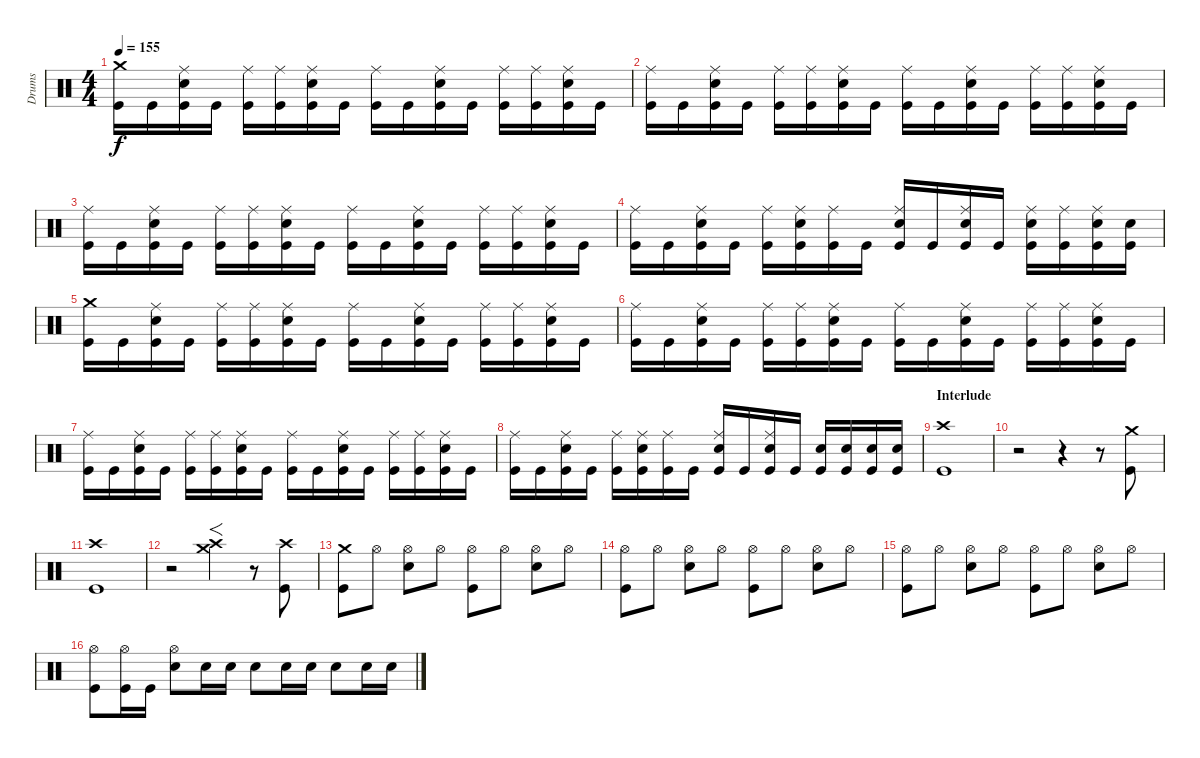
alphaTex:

\track ("Drums" "Drums") {instrument percussion}
\staff {score}
\articulation defaults
\ts (4 4)
\tempo 155
\clef neutral
\ks c
("Crash medium (hit)" "Kick (hit)").16{dy f} "Kick (hit)".16 ("Ride (middle)" "Snare (hit) 2" "Kick (hit)").16 "Kick (hit)".16 ("Ride (middle)" "Kick (hit)").16 ("Ride (middle)" "Kick (hit)").16 ("Ride (middle)" "Snare (hit) 2" "Kick (hit)").16 "Kick (hit)".16 ("Ride (middle)" "Kick (hit)").16 "Kick (hit)".16 ("Ride (middle)" "Snare (hit) 2" "Kick (hit)").16 "Kick (hit)".16 ("Ride (middle)" "Kick (hit)").16 ("Ride (middle)" "Kick (hit)").16 ("Ride (middle)" "Snare (hit) 2" "Kick (hit)").16 "Kick (hit)".16 |
("Ride (middle)" "Kick (hit)").16 "Kick (hit)".16 ("Ride (middle)" "Snare (hit) 2" "Kick (hit)").16 "Kick (hit)".16 ("Ride (middle)" "Kick (hit)").16 ("Ride (middle)" "Kick (hit)").16 ("Ride (middle)" "Snare (hit) 2" "Kick (hit)").16 "Kick (hit)".16 ("Ride (middle)" "Kick (hit)").16 "Kick (hit)".16 ("Ride (middle)" "Snare (hit) 2" "Kick (hit)").16 "Kick (hit)".16 ("Ride (middle)" "Kick (hit)").16 ("Ride (middle)" "Kick (hit)").16 ("Ride (middle)" "Snare (hit) 2" "Kick (hit)").16 "Kick (hit)".16 |
("Ride (middle)" "Kick (hit)").16 "Kick (hit)".16 ("Ride (middle)" "Snare (hit) 2" "Kick (hit)").16 "Kick (hit)".16 ("Ride (middle)" "Kick (hit)").16 ("Ride (middle)" "Kick (hit)").16 ("Ride (middle)" "Snare (hit) 2" "Kick (hit)").16 "Kick (hit)".16 ("Ride (middle)" "Kick (hit)").16 "Kick (hit)".16 ("Ride (middle)" "Snare (hit) 2" "Kick (hit)").16 "Kick (hit)".16 ("Ride (middle)" "Kick (hit)").16 ("Ride (middle)" "Kick (hit)").16 ("Ride (middle)" "Snare (hit) 2" "Kick (hit)").16 "Kick (hit)".16 |
("Ride (middle)" "Kick (hit)").16 "Kick (hit)".16 ("Ride (middle)" "Snare (hit) 2" "Kick (hit)").16 "Kick (hit)".16 ("Ride (middle)" "Kick (hit)").16 ("Ride (middle)" "Snare (hit) 2" "Kick (hit)").16 ("Ride (middle)" "Kick (hit)").16 "Kick (hit)".16 ("Ride (middle)" "Snare (hit) 2" "Kick (hit)").16 "Kick (hit)".16 ("Ride (middle)" "Snare (hit) 2" "Kick (hit)").16 "Kick (hit)".16 ("Ride (middle)" "Snare (hit) 2" "Kick (hit)").16 ("Ride (middle)" "Kick (hit)").16 ("Ride (middle)" "Snare (hit) 2" "Kick (hit)").16 ("Snare (hit) 2" "Kick (hit)").16 |
("Crash medium (hit)" "Kick (hit)").16 "Kick (hit)".16 ("Ride (middle)" "Snare (hit) 2" "Kick (hit)").16 "Kick (hit)".16 ("Ride (middle)" "Kick (hit)").16 ("Ride (middle)" "Kick (hit)").16 ("Ride (middle)" "Snare (hit) 2" "Kick (hit)").16 "Kick (hit)".16 ("Ride (middle)" "Kick (hit)").16 "Kick (hit)".16 ("Ride (middle)" "Snare (hit) 2" "Kick (hit)").16 "Kick (hit)".16 ("Ride (middle)" "Kick (hit)").16 ("Ride (middle)" "Kick (hit)").16 ("Ride (middle)" "Snare (hit) 2" "Kick (hit)").16 "Kick (hit)".16 |
("Ride (middle)" "Kick (hit)").16 "Kick (hit)".16 ("Ride (middle)" "Snare (hit) 2" "Kick (hit)").16 "Kick (hit)".16 ("Ride (middle)" "Kick (hit)").16 ("Ride (middle)" "Kick (hit)").16 ("Ride (middle)" "Snare (hit) 2" "Kick (hit)").16 "Kick (hit)".16 ("Ride (middle)" "Kick (hit)").16 "Kick (hit)".16 ("Ride (middle)" "Snare (hit) 2" "Kick (hit)").16 "Kick (hit)".16 ("Ride (middle)" "Kick (hit)").16 ("Ride (middle)" "Kick (hit)").16 ("Ride (middle)" "Snare (hit) 2" "Kick (hit)").16 "Kick (hit)".16 |
("Ride (middle)" "Kick (hit)").16 "Kick (hit)".16 ("Ride (middle)" "Snare (hit) 2" "Kick (hit)").16 "Kick (hit)".16 ("Ride (middle)" "Kick (hit)").16 ("Ride (middle)" "Kick (hit)").16 ("Ride (middle)" "Snare (hit) 2" "Kick (hit)").16 "Kick (hit)".16 ("Ride (middle)" "Kick (hit)").16 "Kick (hit)".16 ("Ride (middle)" "Snare (hit) 2" "Kick (hit)").16 "Kick (hit)".16 ("Ride (middle)" "Kick (hit)").16 ("Ride (middle)" "Kick (hit)").16 ("Ride (middle)" "Snare (hit) 2" "Kick (hit)").16 "Kick (hit)".16 |
("Ride (middle)" "Kick (hit)").16 "Kick (hit)".16 ("Ride (middle)" "Snare (hit) 2" "Kick (hit)").16 "Kick (hit)".16 ("Ride (middle)" "Kick (hit)").16 ("Ride (middle)" "Snare (hit) 2" "Kick (hit)").16 ("Ride (middle)" "Kick (hit)").16 "Kick (hit)".16 ("Ride (middle)" "Snare (hit) 2" "Kick (hit)").16 "Kick (hit)".16 ("Ride (middle)" "Snare (hit) 2" "Kick (hit)").16 "Kick (hit)".16 ("Snare (hit) 2" "Kick (hit)").16 ("Snare (hit) 2" "Kick (hit)").16 ("Snare (hit) 2" "Kick (hit)").16 ("Snare (hit) 2" "Kick (hit)").16 |
\section ("" "Interlude")
("Crash high (hit)" "Kick (hit)").1 |
r.2 r.4 r.8 ("Crash medium (hit)" "Kick (hit)").8 |
("Crash high (hit)" "Kick (hit)").1 |
r.2 ("Crash high (hit)" "Crash medium (hit)").4{f} r.8 ("Crash high (hit)" "Kick (hit)").8 |
("Crash medium (hit)" "Kick (hit)").8 "Hi-Hat (open)".8 ("Hi-Hat (open)" "Snare (hit) 2").8 "Hi-Hat (open)".8 ("Hi-Hat (open)" "Kick (hit)").8 "Hi-Hat (open)".8 ("Hi-Hat (open)" "Snare (hit) 2").8 "Hi-Hat (open)".8 |
("Hi-Hat (open)" "Kick (hit)").8 "Hi-Hat (open)".8 ("Hi-Hat (open)" "Snare (hit) 2").8 "Hi-Hat (open)".8 ("Hi-Hat (open)" "Kick (hit)").8 "Hi-Hat (open)".8 ("Hi-Hat (open)" "Snare (hit) 2").8 "Hi-Hat (open)".8 |
("Hi-Hat (open)" "Kick (hit)").8 "Hi-Hat (open)".8 ("Hi-Hat (open)" "Snare (hit) 2").8 "Hi-Hat (open)".8 ("Hi-Hat (open)" "Kick (hit)").8 "Hi-Hat (open)".8 ("Hi-Hat (open)" "Snare (hit) 2").8 "Hi-Hat (open)".8 |
("Hi-Hat (open)" "Kick (hit)").8 ("Hi-Hat (open)" "Kick (hit)").16 "Kick (hit)".16 ("Hi-Hat (open)" "Snare (hit) 2").8 "Snare (hit) 2".16 "Snare (hit) 2".16 "Snare (hit) 2".8 "Snare (hit) 2".16 "Snare (hit) 2".16 "Snare (hit) 2".8 "Snare (hit) 2".16 "Snare (hit) 2".16
